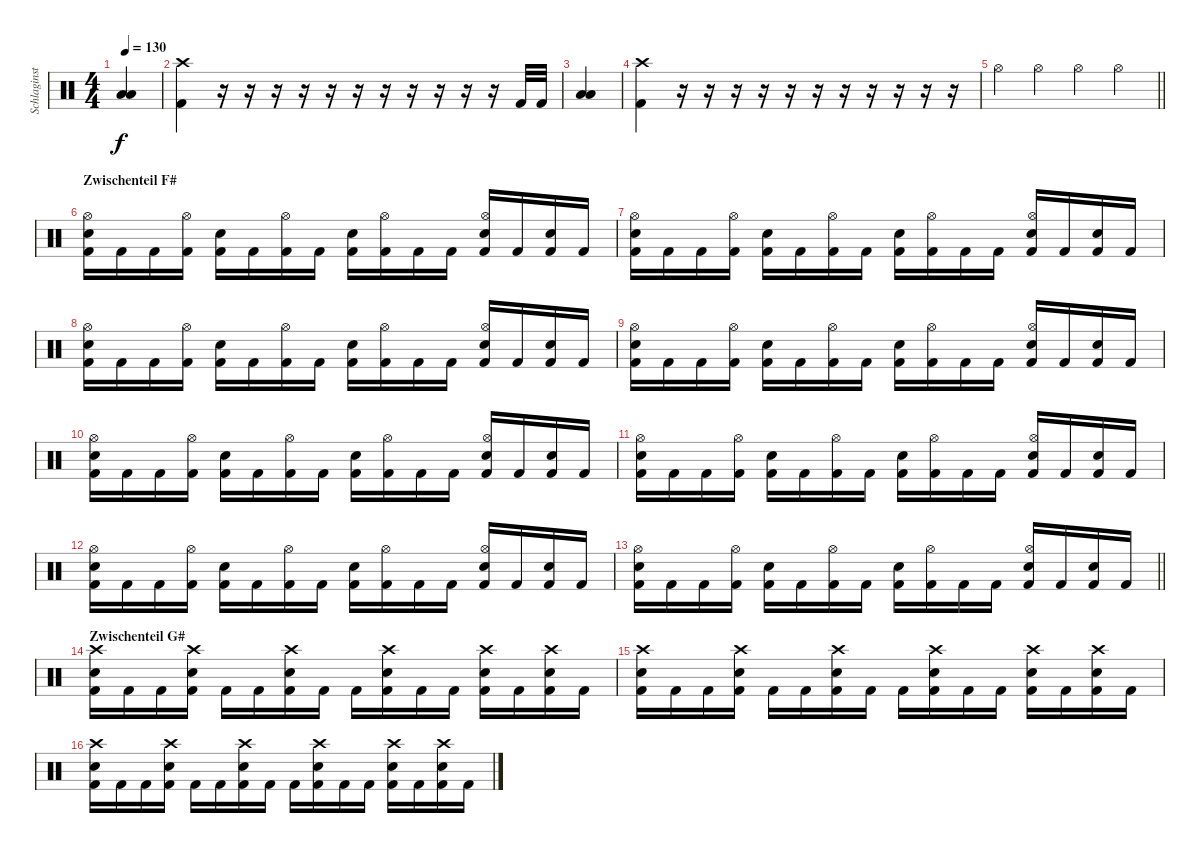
\track ("Schlaginstrumente - Auswahl" "Schlaginst") {instrument percussion}
\staff {score}
\articulation defaults
\ts (4 4)
\tempo 130
\clef neutral
\ks c
("Low Tom (hit)" "Low Floor Tom (hit)").4{dy f} |
("Crash high (hit)" "Kick (hit) 2").4 r.16 r.16 r.16 r.16 r.16 r.16 r.16 r.16 r.16 r.16 r.16 "Kick (hit) 2".32 "Kick (hit) 2".32 |
("Low Tom (hit)" "Low Floor Tom (hit)").4 |
("Crash high (hit)" "Kick (hit) 2").4 r.16 r.16 r.16 r.16 r.16 r.16 r.16 r.16 r.16 r.16 r.16 |
\barLineRight lightlight "Hi-Hat (open)".4 "Hi-Hat (open)".4 "Hi-Hat (open)".4 "Hi-Hat (open)".4
|
\section ("" "Zwischenteil F#")
("Snare (hit) 2" "Hi-Hat (open)" "Kick (hit) 2").16 "Kick (hit) 2".16 "Kick (hit) 2".16 ("Hi-Hat (open)" "Kick (hit) 2").16 ("Snare (hit) 2" "Kick (hit) 2").16 "Kick (hit) 2".16 ("Hi-Hat (open)" "Kick (hit) 2").16 "Kick (hit) 2".16 ("Snare (hit) 2" "Kick (hit) 2").16 ("Hi-Hat (open)" "Kick (hit) 2").16 "Kick (hit) 2".16 "Kick (hit) 2".16 ("Snare (hit) 2" "Hi-Hat (open)" "Kick (hit) 2").16 "Kick (hit) 2".16 ("Snare (hit) 2" "Kick (hit) 2").16 "Kick (hit) 2".16 |
("Snare (hit) 2" "Hi-Hat (open)" "Kick (hit) 2").16 "Kick (hit) 2".16 "Kick (hit) 2".16 ("Hi-Hat (open)" "Kick (hit) 2").16 ("Snare (hit) 2" "Kick (hit) 2").16 "Kick (hit) 2".16 ("Hi-Hat (open)" "Kick (hit) 2").16 "Kick (hit) 2".16 ("Snare (hit) 2" "Kick (hit) 2").16 ("Hi-Hat (open)" "Kick (hit) 2").16 "Kick (hit) 2".16 "Kick (hit) 2".16 ("Snare (hit) 2" "Hi-Hat (open)" "Kick (hit) 2").16 "Kick (hit) 2".16 ("Snare (hit) 2" "Kick (hit) 2").16 "Kick (hit) 2".16 |
("Snare (hit) 2" "Hi-Hat (open)" "Kick (hit) 2").16 "Kick (hit) 2".16 "Kick (hit) 2".16 ("Hi-Hat (open)" "Kick (hit) 2").16 ("Snare (hit) 2" "Kick (hit) 2").16 "Kick (hit) 2".16 ("Hi-Hat (open)" "Kick (hit) 2").16 "Kick (hit) 2".16 ("Snare (hit) 2" "Kick (hit) 2").16 ("Hi-Hat (open)" "Kick (hit) 2").16 "Kick (hit) 2".16 "Kick (hit) 2".16 ("Snare (hit) 2" "Hi-Hat (open)" "Kick (hit) 2").16 "Kick (hit) 2".16 ("Snare (hit) 2" "Kick (hit) 2").16 "Kick (hit) 2".16 |
("Snare (hit) 2" "Hi-Hat (open)" "Kick (hit) 2").16 "Kick (hit) 2".16 "Kick (hit) 2".16 ("Hi-Hat (open)" "Kick (hit) 2").16 ("Snare (hit) 2" "Kick (hit) 2").16 "Kick (hit) 2".16 ("Hi-Hat (open)" "Kick (hit) 2").16 "Kick (hit) 2".16 ("Snare (hit) 2" "Kick (hit) 2").16 ("Hi-Hat (open)" "Kick (hit) 2").16 "Kick (hit) 2".16 "Kick (hit) 2".16 ("Snare (hit) 2" "Hi-Hat (open)" "Kick (hit) 2").16 "Kick (hit) 2".16 ("Snare (hit) 2" "Kick (hit) 2").16 "Kick (hit) 2".16 |
("Snare (hit) 2" "Hi-Hat (open)" "Kick (hit) 2").16 "Kick (hit) 2".16 "Kick (hit) 2".16 ("Hi-Hat (open)" "Kick (hit) 2").16 ("Snare (hit) 2" "Kick (hit) 2").16 "Kick (hit) 2".16 ("Hi-Hat (open)" "Kick (hit) 2").16 "Kick (hit) 2".16 ("Snare (hit) 2" "Kick (hit) 2").16 ("Hi-Hat (open)" "Kick (hit) 2").16 "Kick (hit) 2".16 "Kick (hit) 2".16 ("Snare (hit) 2" "Hi-Hat (open)" "Kick (hit) 2").16 "Kick (hit) 2".16 ("Snare (hit) 2" "Kick (hit) 2").16 "Kick (hit) 2".16 |
("Snare (hit) 2" "Hi-Hat (open)" "Kick (hit) 2").16 "Kick (hit) 2".16 "Kick (hit) 2".16 ("Hi-Hat (open)" "Kick (hit) 2").16 ("Snare (hit) 2" "Kick (hit) 2").16 "Kick (hit) 2".16 ("Hi-Hat (open)" "Kick (hit) 2").16 "Kick (hit) 2".16 ("Snare (hit) 2" "Kick (hit) 2").16 ("Hi-Hat (open)" "Kick (hit) 2").16 "Kick (hit) 2".16 "Kick (hit) 2".16 ("Snare (hit) 2" "Hi-Hat (open)" "Kick (hit) 2").16 "Kick (hit) 2".16 ("Snare (hit) 2" "Kick (hit) 2").16 "Kick (hit) 2".16 |
("Snare (hit) 2" "Hi-Hat (open)" "Kick (hit) 2").16 "Kick (hit) 2".16 "Kick (hit) 2".16 ("Hi-Hat (open)" "Kick (hit) 2").16 ("Snare (hit) 2" "Kick (hit) 2").16 "Kick (hit) 2".16 ("Hi-Hat (open)" "Kick (hit) 2").16 "Kick (hit) 2".16 ("Snare (hit) 2" "Kick (hit) 2").16 ("Hi-Hat (open)" "Kick (hit) 2").16 "Kick (hit) 2".16 "Kick (hit) 2".16 ("Snare (hit) 2" "Hi-Hat (open)" "Kick (hit) 2").16 "Kick (hit) 2".16 ("Snare (hit) 2" "Kick (hit) 2").16 "Kick (hit) 2".16 |
\barLineRight lightlight
("Snare (hit) 2" "Hi-Hat (open)" "Kick (hit) 2").16 "Kick (hit) 2".16 "Kick (hit) 2".16 ("Hi-Hat (open)" "Kick (hit) 2").16 ("Snare (hit) 2" "Kick (hit) 2").16 "Kick (hit) 2".16 ("Hi-Hat (open)" "Kick (hit) 2").16 "Kick (hit) 2".16 ("Snare (hit) 2" "Kick (hit) 2").16 ("Hi-Hat (open)" "Kick (hit) 2").16 "Kick (hit) 2".16 "Kick (hit) 2".16 ("Snare (hit) 2" "Hi-Hat (open)" "Kick (hit) 2").16 "Kick (hit) 2".16 ("Snare (hit) 2" "Kick (hit) 2").16 "Kick (hit) 2".16 |
\section ("" "Zwischenteil G#")
("Snare (hit) 2" "Crash high (hit)" "Kick (hit) 2").16 "Kick (hit) 2".16 "Kick (hit) 2".16 ("Snare (hit) 2" "Crash high (hit)" "Kick (hit) 2").16 "Kick (hit) 2".16 "Kick (hit) 2".16 ("Snare (hit) 2" "Crash high (hit)" "Kick (hit) 2").16 "Kick (hit) 2".16 "Kick (hit) 2".16 ("Snare (hit) 2" "Crash high (hit)" "Kick (hit) 2").16 "Kick (hit) 2".16 "Kick (hit) 2".16 ("Snare (hit) 2" "Crash high (hit)" "Kick (hit) 2").16 "Kick (hit) 2".16 ("Snare (hit) 2" "Crash high (hit)" "Kick (hit) 2").16 "Kick (hit) 2".16 |
("Snare (hit) 2" "Crash high (hit)" "Kick (hit) 2").16 "Kick (hit) 2".16 "Kick (hit) 2".16 ("Snare (hit) 2" "Crash high (hit)" "Kick (hit) 2").16 "Kick (hit) 2".16 "Kick (hit) 2".16 ("Snare (hit) 2" "Crash high (hit)" "Kick (hit) 2").16 "Kick (hit) 2".16 "Kick (hit) 2".16 ("Snare (hit) 2" "Crash high (hit)" "Kick (hit) 2").16 "Kick (hit) 2".16 "Kick (hit) 2".16 ("Snare (hit) 2" "Crash high (hit)" "Kick (hit) 2").16 "Kick (hit) 2".16 ("Snare (hit) 2" "Crash high (hit)" "Kick (hit) 2").16 "Kick (hit) 2".16 |
("Snare (hit) 2" "Crash high (hit)" "Kick (hit) 2").16 "Kick (hit) 2".16 "Kick (hit) 2".16 ("Snare (hit) 2" "Crash high (hit)" "Kick (hit) 2").16 "Kick (hit) 2".16 "Kick (hit) 2".16 ("Snare (hit) 2" "Crash high (hit)" "Kick (hit) 2").16 "Kick (hit) 2".16 "Kick (hit) 2".16 ("Snare (hit) 2" "Crash high (hit)" "Kick (hit) 2").16 "Kick (hit) 2".16 "Kick (hit) 2".16 ("Snare (hit) 2" "Crash high (hit)" "Kick (hit) 2").16 "Kick (hit) 2".16 ("Snare (hit) 2" "Crash high (hit)" "Kick (hit) 2").16 "Kick (hit) 2".16
